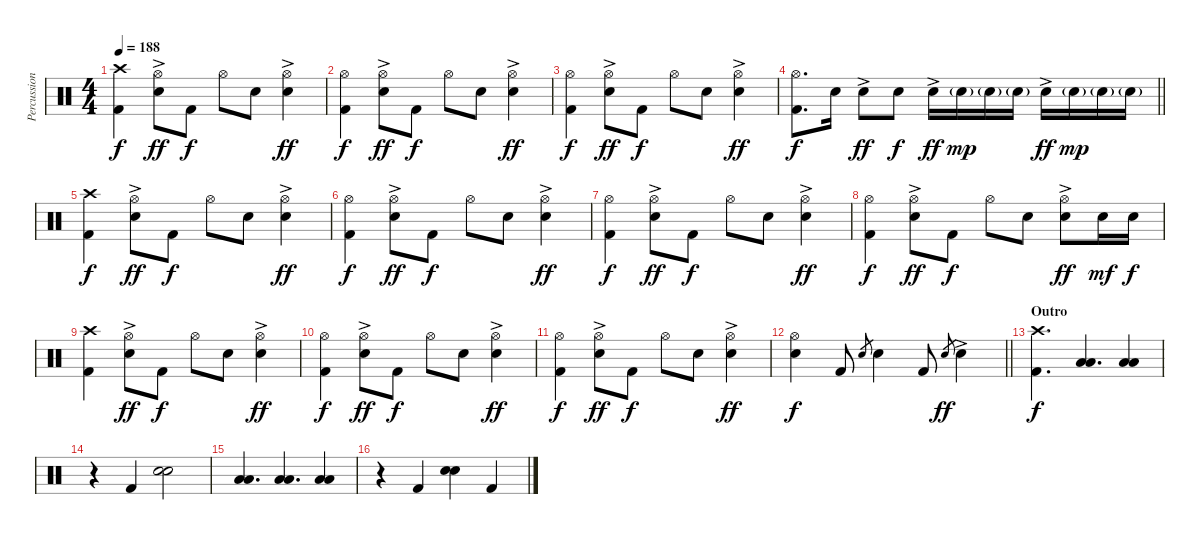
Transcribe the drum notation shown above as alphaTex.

\track ("Percussion" "Percussion") {instrument percussion}
\staff {score}
\articulation defaults
\ts (4 4)
\tempo 188
\clef neutral
\ks c
("Crash high (hit)" "Kick (hit) 2").4{dy f} ("Hi-Hat (open)" "Electric Snare (hit)"{ac}).8{dy ff} "Kick (hit) 2".8{dy f} "Hi-Hat (open)".8 "Electric Snare (hit)".8 ("Hi-Hat (open)" "Electric Snare (hit)"{ac}).4{dy ff} |
("Hi-Hat (open)" "Kick (hit) 2").4{dy f} ("Hi-Hat (open)" "Electric Snare (hit)"{ac}).8{dy ff} "Kick (hit) 2".8{dy f} "Hi-Hat (open)".8 "Electric Snare (hit)".8 ("Hi-Hat (open)" "Electric Snare (hit)"{ac}).4{dy ff} |
("Hi-Hat (open)" "Kick (hit) 2").4{dy f} ("Hi-Hat (open)" "Electric Snare (hit)"{ac}).8{dy ff} "Kick (hit) 2".8{dy f} "Hi-Hat (open)".8 "Electric Snare (hit)".8 ("Hi-Hat (open)" "Electric Snare (hit)"{ac}).4{dy ff} |
\barLineRight lightlight
("Hi-Hat (open)" "Kick (hit) 2").8{d dy f} "Electric Snare (hit)".16 "Electric Snare (hit)"{ac}.8{dy ff} "Electric Snare (hit)".8{dy f} "Electric Snare (hit)"{ac}.16{dy ff} "Electric Snare (hit)"{g}.16{dy mp} "Electric Snare (hit)"{g}.16 "Electric Snare (hit)"{g}.16 "Electric Snare (hit)"{ac}.16{dy ff} "Electric Snare (hit)"{g}.16{dy mp} "Electric Snare (hit)"{g}.16 "Electric Snare (hit)"{g}.16 |
("Crash high (hit)" "Kick (hit) 2").4{dy f} ("Hi-Hat (open)" "Electric Snare (hit)"{ac}).8{dy ff} "Kick (hit) 2".8{dy f} "Hi-Hat (open)".8 "Electric Snare (hit)".8 ("Hi-Hat (open)" "Electric Snare (hit)"{ac}).4{dy ff} |
("Hi-Hat (open)" "Kick (hit) 2").4{dy f} ("Hi-Hat (open)" "Electric Snare (hit)"{ac}).8{dy ff} "Kick (hit) 2".8{dy f} "Hi-Hat (open)".8 "Electric Snare (hit)".8 ("Hi-Hat (open)" "Electric Snare (hit)"{ac}).4{dy ff} |
("Hi-Hat (open)" "Kick (hit) 2").4{dy f} ("Hi-Hat (open)" "Electric Snare (hit)"{ac}).8{dy ff} "Kick (hit) 2".8{dy f} "Hi-Hat (open)".8 "Electric Snare (hit)".8 ("Hi-Hat (open)" "Electric Snare (hit)"{ac}).4{dy ff} |
("Hi-Hat (open)" "Kick (hit) 2").4{dy f} ("Hi-Hat (open)" "Electric Snare (hit)"{ac}).8{dy ff} "Kick (hit) 2".8{dy f} "Hi-Hat (open)".8 "Electric Snare (hit)".8 ("Hi-Hat (open)" "Electric Snare (hit)"{ac}).8{dy ff} "Electric Snare (hit)".16{dy mf} "Electric Snare (hit)".16{dy f} |
("Crash high (hit)" "Kick (hit) 2").4 ("Hi-Hat (open)" "Electric Snare (hit)"{ac}).8{dy ff} "Kick (hit) 2".8{dy f} "Hi-Hat (open)".8 "Electric Snare (hit)".8 ("Hi-Hat (open)" "Electric Snare (hit)"{ac}).4{dy ff} |
("Hi-Hat (open)" "Kick (hit) 2").4{dy f} ("Hi-Hat (open)" "Electric Snare (hit)"{ac}).8{dy ff} "Kick (hit) 2".8{dy f} "Hi-Hat (open)".8 "Electric Snare (hit)".8 ("Hi-Hat (open)" "Electric Snare (hit)"{ac}).4{dy ff} |
("Hi-Hat (open)" "Kick (hit) 2").4{dy f} ("Hi-Hat (open)" "Electric Snare (hit)"{ac}).8{dy ff} "Kick (hit) 2".8{dy f} "Hi-Hat (open)".8 "Electric Snare (hit)".8 ("Hi-Hat (open)" "Electric Snare (hit)"{ac}).4{dy ff} |
\barLineRight lightlight
("Hi-Hat (open)" "Electric Snare (hit)").4{dy f} "Kick (hit) 2".8 "Electric Snare (hit)".8{gr} "Electric Snare (hit)".4 "Kick (hit) 2".8 "Electric Snare (hit)".8{gr dy ff} "Electric Snare (hit)"{ac}.4 |
\section ("" "Outro")
("Crash high (hit)" "Kick (hit) 2").4{d dy f} ("Low Tom (hit)" "Low Tom (hit)").4{d bu 120} ("Low Tom (hit)" "Low Tom (hit)").4{bu 120} |
r.4 "Kick (hit) 2".4 ("Electric Snare (hit)" "Electric Snare (hit)").2{bu 120} |
("Low Tom (hit)" "Low Tom (hit)").4{d bu 120} ("Low Tom (hit)" "Low Tom (hit)").4{d bu 120} ("Low Tom (hit)" "Low Tom (hit)").4{bu 120} |
r.4 "Kick (hit) 2".4 ("Electric Snare (hit)" "Electric Snare (hit)").4{bu 120} "Kick (hit) 2".4
